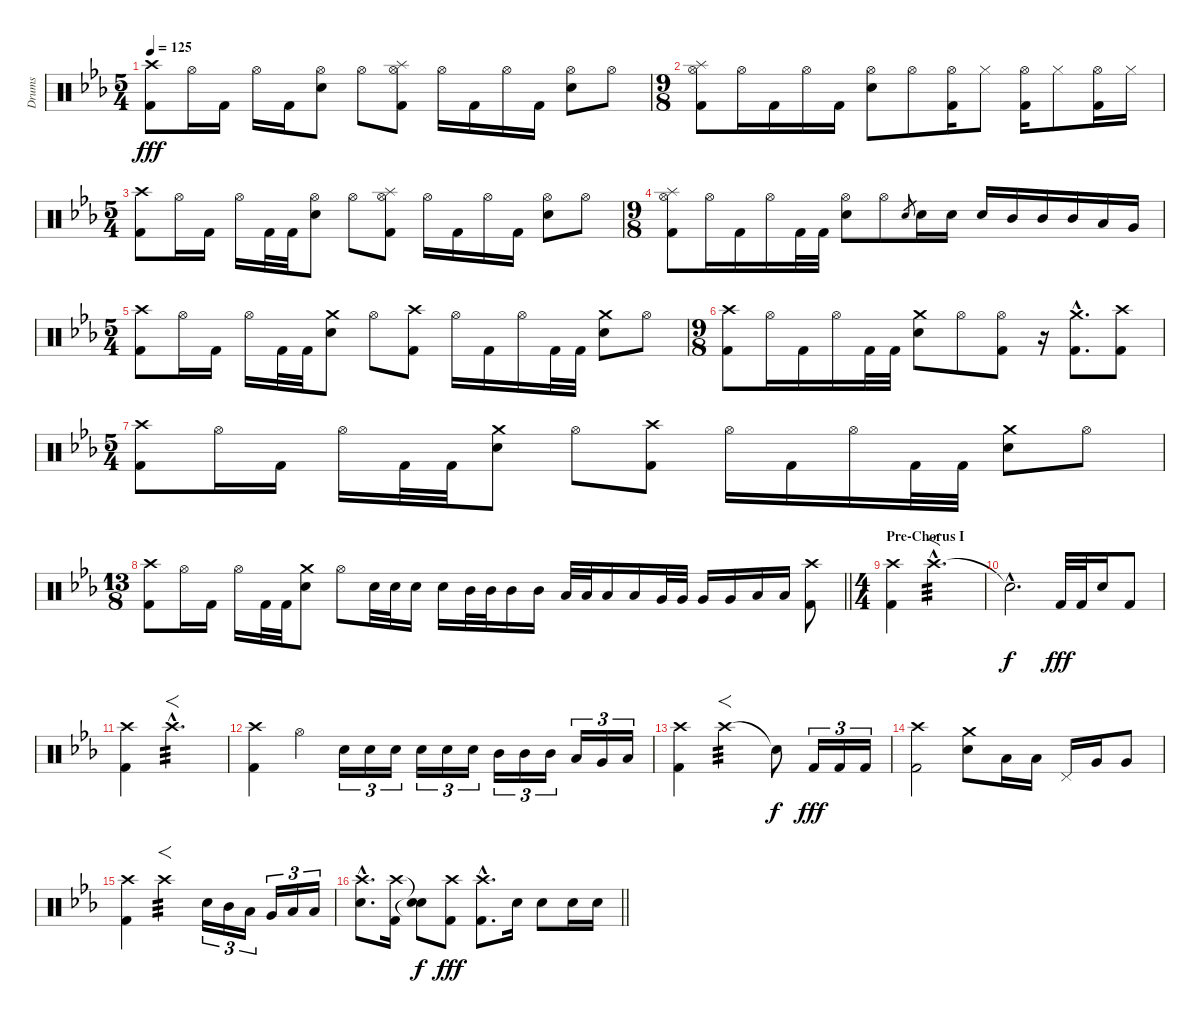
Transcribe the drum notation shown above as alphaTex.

\track ("Drums" "Drums") {instrument percussion}
\staff {score}
\articulation defaults
\ts (5 4)
\tempo 125
\clef neutral
\ks cminor
("Crash high (hit)" "Kick (hit) 2").8{dy fff} "Hi-Hat (open)".16 "Kick (hit) 2".16 "Hi-Hat (open)".16 "Kick (hit) 2".16 ("Hi-Hat (open)" "Snare (hit) 2").8 "Hi-Hat (open)".8 ("Hi-Hat (open)" "Splash (hit)" "Kick (hit) 2").8 "Hi-Hat (open)".16 "Kick (hit) 2".16 "Hi-Hat (open)".16 "Kick (hit) 2".16 ("Hi-Hat (open)" "Snare (hit) 2").8 "Hi-Hat (open)".8 |
\ts (9 8)
("Hi-Hat (open)" "Splash (hit)" "Kick (hit) 2").8 "Hi-Hat (open)".16 "Kick (hit) 2".16 "Hi-Hat (open)".16 "Kick (hit) 2".16 ("Hi-Hat (open)" "Snare (hit) 2").8 "Hi-Hat (open)".8 ("Hi-Hat (open)" "Kick (hit) 2").16 "Hi-Hat (closed)".8 ("Hi-Hat (open)" "Kick (hit) 2").16 "Hi-Hat (closed)".8 ("Hi-Hat (open)" "Kick (hit) 2").16 "Hi-Hat (closed)".16 |
\ts (5 4)
("Crash high (hit)" "Kick (hit) 2").8 "Hi-Hat (open)".16 "Kick (hit) 2".16 "Hi-Hat (open)".16 "Kick (hit) 2".32 "Kick (hit) 2".32 ("Hi-Hat (open)" "Snare (hit) 2").8 "Hi-Hat (open)".8 ("Hi-Hat (open)" "Splash (hit)" "Kick (hit) 2").8 "Hi-Hat (open)".16 "Kick (hit) 2".16 "Hi-Hat (open)".16 "Kick (hit) 2".16 ("Hi-Hat (open)" "Snare (hit) 2").8 "Hi-Hat (open)".8 |
\ts (9 8)
("Hi-Hat (open)" "Splash (hit)" "Kick (hit) 2").8 "Hi-Hat (open)".16 "Kick (hit) 2".16 "Hi-Hat (open)".16 "Kick (hit) 2".32 "Kick (hit) 2".32 ("Hi-Hat (open)" "Snare (hit) 2").8 "Hi-Hat (open)".8 "Snare (hit) 2".8{gr} "Snare (hit) 2".16 "Snare (hit) 2".16 "Snare (hit) 2".16 "Mid Tom (hit)".16 "Mid Tom (hit)".16 "Mid Tom (hit)".16 "Low Tom (hit)".16 "Very Low Tom (hit)".16 |
\ts (5 4)
("Crash high (hit)" "Kick (hit) 2").8 "Hi-Hat (open)".16 "Kick (hit) 2".16 "Hi-Hat (open)".16 "Kick (hit) 2".32 "Kick (hit) 2".32 ("Crash medium (hit)" "Snare (hit) 2").8 "Hi-Hat (open)".8 ("Crash high (hit)" "Kick (hit) 2").8 "Hi-Hat (open)".16 "Kick (hit) 2".16 "Hi-Hat (open)".16 "Kick (hit) 2".32 "Kick (hit) 2".32 ("Crash medium (hit)" "Snare (hit) 2").8 "Hi-Hat (open)".8 |
\ts (9 8)
("Crash high (hit)" "Kick (hit) 2").8 "Hi-Hat (open)".16 "Kick (hit) 2".16 "Hi-Hat (open)".16 "Kick (hit) 2".32 "Kick (hit) 2".32 ("Crash medium (hit)" "Snare (hit) 2").8 "Hi-Hat (open)".8 ("Hi-Hat (open)" "Kick (hit) 2").8 r.16 ("Crash medium (hit)"{hac} "Kick (hit) 2"{hac}).8{d} ("Crash high (hit)" "Kick (hit) 2").8 |
\ts (5 4)
("Crash high (hit)" "Kick (hit) 2").8 "Hi-Hat (open)".16 "Kick (hit) 2".16 "Hi-Hat (open)".16 "Kick (hit) 2".32 "Kick (hit) 2".32 ("Crash medium (hit)" "Snare (hit) 2").8 "Hi-Hat (open)".8 ("Crash high (hit)" "Kick (hit) 2").8 "Hi-Hat (open)".16 "Kick (hit) 2".16 "Hi-Hat (open)".16 "Kick (hit) 2".32 "Kick (hit) 2".32 ("Crash medium (hit)" "Snare (hit) 2").8 "Hi-Hat (open)".8 |
\ts (13 8)
\barLineRight lightlight
("Crash high (hit)" "Kick (hit) 2").8 "Hi-Hat (open)".16 "Kick (hit) 2".16 "Hi-Hat (open)".16 "Kick (hit) 2".32 "Kick (hit) 2".32 ("Crash medium (hit)" "Snare (hit) 2").8 "Hi-Hat (open)".8 "Snare (hit) 2".32 "Snare (hit) 2".32 "Snare (hit) 2".16 "Snare (hit) 2".16 "Mid Tom (hit)".32 "Mid Tom (hit)".32 "Mid Tom (hit)".16 "Mid Tom (hit)".16 "Low Tom (hit)".32 "Low Tom (hit)".32 "Low Tom (hit)".16 "Low Tom (hit)".16 "Very Low Tom (hit)".32 "Very Low Tom (hit)".32 "Very Low Tom (hit)".16 "Very Low Tom (hit)".16 "Low Floor Tom (hit)".16 "Low Floor Tom (hit)".16 ("Crash high (hit)" "Kick (hit) 2").8 |
\ts (4 4)
\section ("" "Pre-Chorus I")
("Crash high (hit)" "Kick (hit) 2").4 "Crash high (hit)"{hac}.2{f d tp 3} |
"Snare (hit)"{hac t}.2{d dy f} "Kick (hit) 2".32{dy fff} "Kick (hit) 2".32 "Snare (hit) 2".16 "Kick (hit) 2".8 |
("Crash high (hit)" "Kick (hit) 2").4 "Crash high (hit)"{hac}.2{f d tp 3} |
("Crash high (hit)" "Kick (hit) 2").4 "Hi-Hat (open)".4 "Snare (hit) 2".16{tu (3 2)} "Snare (hit) 2".16{tu (3 2)} "Snare (hit) 2".16{tu (3 2)} "Snare (hit) 2".16{tu (3 2)} "Snare (hit) 2".16{tu (3 2)} "Snare (hit) 2".16{tu (3 2)} "Mid Tom (hit)".16{tu (3 2)} "Mid Tom (hit)".16{tu (3 2)} "Mid Tom (hit)".16{tu (3 2)} "Low Tom (hit)".16{tu (3 2)} "Very Low Tom (hit)".16{tu (3 2)} "Low Floor Tom (hit)".16{tu (3 2)} |
("Crash high (hit)" "Kick (hit) 2").4 "Crash high (hit)".2{f tp 3} "Snare (hit)"{t}.8{dy f} "Kick (hit) 2".16{tu (3 2) dy fff} "Kick (hit) 2".16{tu (3 2)} "Kick (hit) 2".16{tu (3 2)} |
("Crash high (hit)" "Kick (hit) 2").2 ("Crash medium (hit)" "Snare (hit) 2").8 "Low Tom (hit)".16 "Low Tom (hit)".16 "Pedal Hi-Hat (hit)".16 "Very Low Tom (hit)".16 "Very Low Tom (hit)".8 |
("Crash high (hit)" "Kick (hit) 2").4 "Crash high (hit)".2{f tp 3} "Snare (hit) 2".16{tu (3 2)} "Mid Tom (hit)".16{tu (3 2)} "Low Tom (hit)".16{tu (3 2)} "Very Low Tom (hit)".16{tu (3 2)} "Low Floor Tom (hit)".16{tu (3 2)} "Low Floor Tom (hit)".16{tu (3 2)} |
\barLineRight lightlight
("Crash high (hit)"{hac} "Snare (hit) 2"{hac}).8{d} ("Crash high (hit)" "Kick (hit) 2").16 ("Snare (hit)"{t} "Snare (hit)"{t}).8{dy f} ("Crash high (hit)" "Kick (hit) 2").8{dy fff} ("Crash high (hit)"{hac} "Kick (hit) 2"{hac}).8{d} "Snare (hit) 2".16 "Snare (hit) 2".8 "Snare (hit) 2".16 "Snare (hit) 2".16
